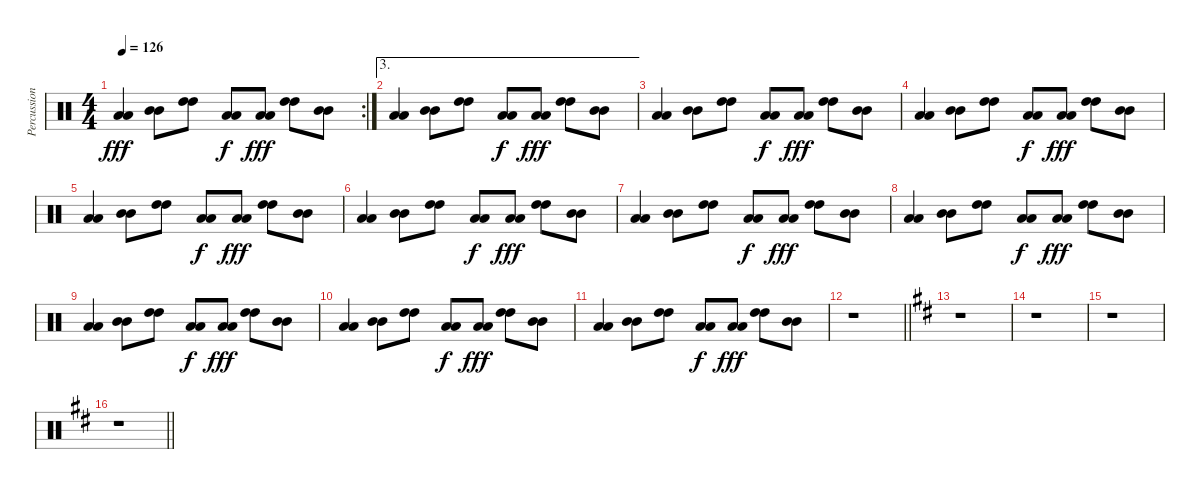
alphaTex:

\track ("Percussions 2" "Percussion") {instrument percussion}
\staff {score}
\articulation defaults
\rc 2
\ts (4 4)
\tempo 126
\clef neutral
\ks c
("Low Tom (hit)" "Low Tom (hit)").4{dy fff} ("Mid Tom (hit)" "Mid Tom (hit)").8 ("High Tom (hit)" "High Tom (hit)").8 ("Low Tom (hit)" "Low Tom (hit)").8{dy f} ("Low Tom (hit)" "Low Tom (hit)").8{dy fff} ("High Tom (hit)" "High Tom (hit)").8 ("Mid Tom (hit)" "Mid Tom (hit)").8 |
\ae 3
("Low Tom (hit)" "Low Tom (hit)").4 ("Mid Tom (hit)" "Mid Tom (hit)").8 ("High Tom (hit)" "High Tom (hit)").8 ("Low Tom (hit)" "Low Tom (hit)").8{dy f} ("Low Tom (hit)" "Low Tom (hit)").8{dy fff} ("High Tom (hit)" "High Tom (hit)").8 ("Mid Tom (hit)" "Mid Tom (hit)").8 |
("Low Tom (hit)" "Low Tom (hit)").4 ("Mid Tom (hit)" "Mid Tom (hit)").8 ("High Tom (hit)" "High Tom (hit)").8 ("Low Tom (hit)" "Low Tom (hit)").8{dy f} ("Low Tom (hit)" "Low Tom (hit)").8{dy fff} ("High Tom (hit)" "High Tom (hit)").8 ("Mid Tom (hit)" "Mid Tom (hit)").8 |
("Low Tom (hit)" "Low Tom (hit)").4 ("Mid Tom (hit)" "Mid Tom (hit)").8 ("High Tom (hit)" "High Tom (hit)").8 ("Low Tom (hit)" "Low Tom (hit)").8{dy f} ("Low Tom (hit)" "Low Tom (hit)").8{dy fff} ("High Tom (hit)" "High Tom (hit)").8 ("Mid Tom (hit)" "Mid Tom (hit)").8 |
("Low Tom (hit)" "Low Tom (hit)").4 ("Mid Tom (hit)" "Mid Tom (hit)").8 ("High Tom (hit)" "High Tom (hit)").8 ("Low Tom (hit)" "Low Tom (hit)").8{dy f} ("Low Tom (hit)" "Low Tom (hit)").8{dy fff} ("High Tom (hit)" "High Tom (hit)").8 ("Mid Tom (hit)" "Mid Tom (hit)").8 |
("Low Tom (hit)" "Low Tom (hit)").4 ("Mid Tom (hit)" "Mid Tom (hit)").8 ("High Tom (hit)" "High Tom (hit)").8 ("Low Tom (hit)" "Low Tom (hit)").8{dy f} ("Low Tom (hit)" "Low Tom (hit)").8{dy fff} ("High Tom (hit)" "High Tom (hit)").8 ("Mid Tom (hit)" "Mid Tom (hit)").8 |
("Low Tom (hit)" "Low Tom (hit)").4 ("Mid Tom (hit)" "Mid Tom (hit)").8 ("High Tom (hit)" "High Tom (hit)").8 ("Low Tom (hit)" "Low Tom (hit)").8{dy f} ("Low Tom (hit)" "Low Tom (hit)").8{dy fff} ("High Tom (hit)" "High Tom (hit)").8 ("Mid Tom (hit)" "Mid Tom (hit)").8 |
("Low Tom (hit)" "Low Tom (hit)").4 ("Mid Tom (hit)" "Mid Tom (hit)").8 ("High Tom (hit)" "High Tom (hit)").8 ("Low Tom (hit)" "Low Tom (hit)").8{dy f} ("Low Tom (hit)" "Low Tom (hit)").8{dy fff} ("High Tom (hit)" "High Tom (hit)").8 ("Mid Tom (hit)" "Mid Tom (hit)").8 |
("Low Tom (hit)" "Low Tom (hit)").4 ("Mid Tom (hit)" "Mid Tom (hit)").8 ("High Tom (hit)" "High Tom (hit)").8 ("Low Tom (hit)" "Low Tom (hit)").8{dy f} ("Low Tom (hit)" "Low Tom (hit)").8{dy fff} ("High Tom (hit)" "High Tom (hit)").8 ("Mid Tom (hit)" "Mid Tom (hit)").8 |
("Low Tom (hit)" "Low Tom (hit)").4 ("Mid Tom (hit)" "Mid Tom (hit)").8 ("High Tom (hit)" "High Tom (hit)").8 ("Low Tom (hit)" "Low Tom (hit)").8{dy f} ("Low Tom (hit)" "Low Tom (hit)").8{dy fff} ("High Tom (hit)" "High Tom (hit)").8 ("Mid Tom (hit)" "Mid Tom (hit)").8 |
("Low Tom (hit)" "Low Tom (hit)").4 ("Mid Tom (hit)" "Mid Tom (hit)").8 ("High Tom (hit)" "High Tom (hit)").8 ("Low Tom (hit)" "Low Tom (hit)").8{dy f} ("Low Tom (hit)" "Low Tom (hit)").8{dy fff} ("High Tom (hit)" "High Tom (hit)").8 ("Mid Tom (hit)" "Mid Tom (hit)").8 |
\barLineRight lightlight
r.1 |
\ks d
r.1 |
r.1 |
r.1 |
\barLineRight lightlight
r.1
